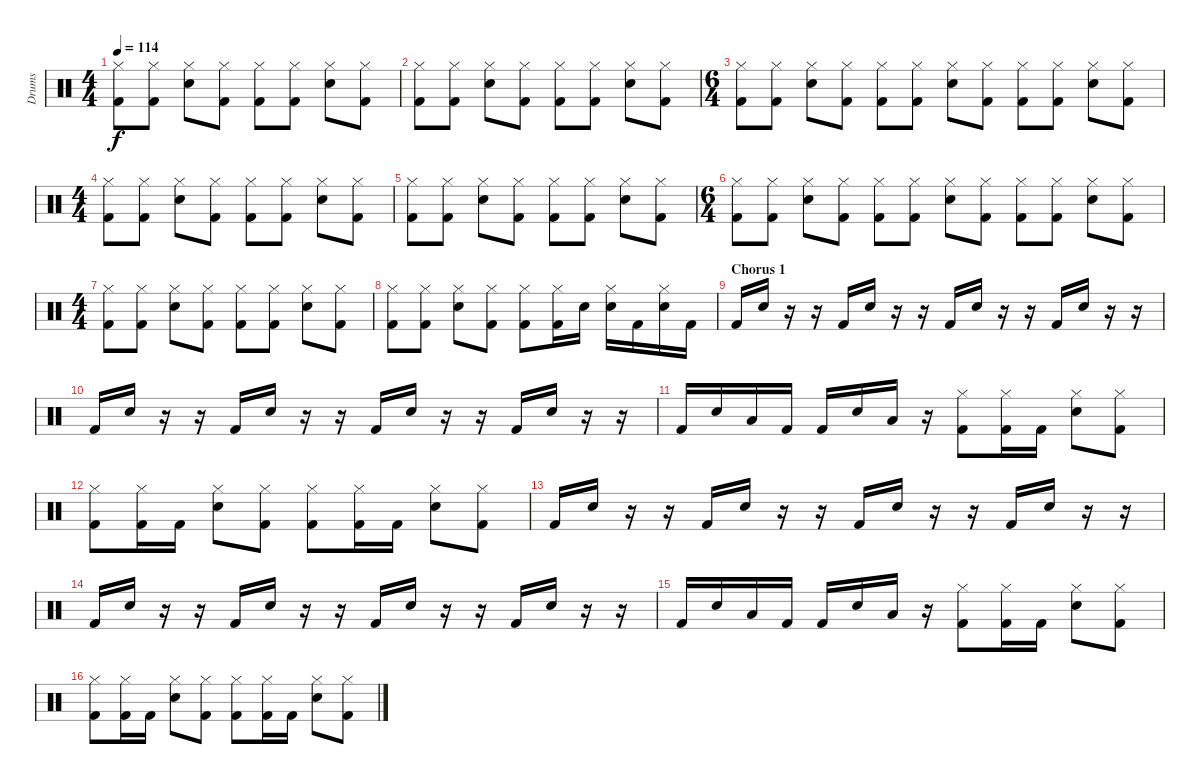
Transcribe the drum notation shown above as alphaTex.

\track ("Drums" "Drums") {instrument percussion}
\staff {score}
\articulation defaults
\ts (4 4)
\tempo 114
\clef neutral
\ks c
("Hi-Hat (closed)" "Kick (hit) 2").8{dy f} ("Hi-Hat (closed)" "Kick (hit) 2").8 ("Hi-Hat (closed)" "Snare (hit) 2").8 ("Hi-Hat (closed)" "Kick (hit) 2").8 ("Hi-Hat (closed)" "Kick (hit) 2").8 ("Hi-Hat (closed)" "Kick (hit) 2").8 ("Hi-Hat (closed)" "Snare (hit) 2").8 ("Hi-Hat (closed)" "Kick (hit) 2").8 |
("Hi-Hat (closed)" "Kick (hit) 2").8 ("Hi-Hat (closed)" "Kick (hit) 2").8 ("Hi-Hat (closed)" "Snare (hit) 2").8 ("Hi-Hat (closed)" "Kick (hit) 2").8 ("Hi-Hat (closed)" "Kick (hit) 2").8 ("Hi-Hat (closed)" "Kick (hit) 2").8 ("Hi-Hat (closed)" "Snare (hit) 2").8 ("Hi-Hat (closed)" "Kick (hit) 2").8 |
\ts (6 4)
("Hi-Hat (closed)" "Kick (hit) 2").8 ("Hi-Hat (closed)" "Kick (hit) 2").8 ("Hi-Hat (closed)" "Snare (hit) 2").8 ("Hi-Hat (closed)" "Kick (hit) 2").8 ("Hi-Hat (closed)" "Kick (hit) 2").8 ("Hi-Hat (closed)" "Kick (hit) 2").8 ("Hi-Hat (closed)" "Snare (hit) 2").8 ("Hi-Hat (closed)" "Kick (hit) 2").8 ("Hi-Hat (closed)" "Kick (hit) 2").8 ("Hi-Hat (closed)" "Kick (hit) 2").8 ("Hi-Hat (closed)" "Snare (hit) 2").8 ("Hi-Hat (closed)" "Kick (hit) 2").8 |
\ts (4 4)
("Hi-Hat (closed)" "Kick (hit) 2").8 ("Hi-Hat (closed)" "Kick (hit) 2").8 ("Hi-Hat (closed)" "Snare (hit) 2").8 ("Hi-Hat (closed)" "Kick (hit) 2").8 ("Hi-Hat (closed)" "Kick (hit) 2").8 ("Hi-Hat (closed)" "Kick (hit) 2").8 ("Hi-Hat (closed)" "Snare (hit) 2").8 ("Hi-Hat (closed)" "Kick (hit) 2").8 |
("Hi-Hat (closed)" "Kick (hit) 2").8 ("Hi-Hat (closed)" "Kick (hit) 2").8 ("Hi-Hat (closed)" "Snare (hit) 2").8 ("Hi-Hat (closed)" "Kick (hit) 2").8 ("Hi-Hat (closed)" "Kick (hit) 2").8 ("Hi-Hat (closed)" "Kick (hit) 2").8 ("Hi-Hat (closed)" "Snare (hit) 2").8 ("Hi-Hat (closed)" "Kick (hit) 2").8 |
\ts (6 4)
("Hi-Hat (closed)" "Kick (hit) 2").8 ("Hi-Hat (closed)" "Kick (hit) 2").8 ("Hi-Hat (closed)" "Snare (hit) 2").8 ("Hi-Hat (closed)" "Kick (hit) 2").8 ("Hi-Hat (closed)" "Kick (hit) 2").8 ("Hi-Hat (closed)" "Kick (hit) 2").8 ("Hi-Hat (closed)" "Snare (hit) 2").8 ("Hi-Hat (closed)" "Kick (hit) 2").8 ("Hi-Hat (closed)" "Kick (hit) 2").8 ("Hi-Hat (closed)" "Kick (hit) 2").8 ("Hi-Hat (closed)" "Snare (hit) 2").8 ("Hi-Hat (closed)" "Kick (hit) 2").8 |
\ts (4 4)
("Hi-Hat (closed)" "Kick (hit) 2").8 ("Hi-Hat (closed)" "Kick (hit) 2").8 ("Hi-Hat (closed)" "Snare (hit) 2").8 ("Hi-Hat (closed)" "Kick (hit) 2").8 ("Hi-Hat (closed)" "Kick (hit) 2").8 ("Hi-Hat (closed)" "Kick (hit) 2").8 ("Hi-Hat (closed)" "Snare (hit) 2").8 ("Hi-Hat (closed)" "Kick (hit) 2").8 |
("Hi-Hat (closed)" "Kick (hit) 2").8 ("Hi-Hat (closed)" "Kick (hit) 2").8 ("Hi-Hat (closed)" "Snare (hit) 2").8 ("Hi-Hat (closed)" "Kick (hit) 2").8 ("Hi-Hat (closed)" "Kick (hit) 2").8 ("Hi-Hat (closed)" "Kick (hit) 2").16 "Snare (hit) 2".16 ("Hi-Hat (closed)" "Snare (hit) 2").16 "Kick (hit) 2".16 ("Hi-Hat (closed)" "Snare (hit) 2").16 "Kick (hit) 2".16 |
\section ("" "Chorus 1")
"Kick (hit) 2".16 "Snare (hit) 2".16 r.16 r.16 "Kick (hit) 2".16 "Snare (hit) 2".16 r.16 r.16 "Kick (hit) 2".16 "Snare (hit) 2".16 r.16 r.16 "Kick (hit) 2".16 "Snare (hit) 2".16 r.16 r.16 |
"Kick (hit) 2".16 "Snare (hit) 2".16 r.16 r.16 "Kick (hit) 2".16 "Snare (hit) 2".16 r.16 r.16 "Kick (hit) 2".16 "Snare (hit) 2".16 r.16 r.16 "Kick (hit) 2".16 "Snare (hit) 2".16 r.16 r.16 |
"Kick (hit) 2".16 "Snare (hit) 2".16 "Low Tom (hit)".16 "Kick (hit) 2".16 "Kick (hit) 2".16 "Snare (hit) 2".16 "Low Floor Tom (hit)".16 r.16 ("Hi-Hat (closed)" "Kick (hit) 2").8 ("Hi-Hat (closed)" "Kick (hit) 2").16 "Kick (hit) 2".16 ("Hi-Hat (closed)" "Snare (hit) 2").8 ("Hi-Hat (closed)" "Kick (hit) 2").8 |
("Hi-Hat (closed)" "Kick (hit) 2").8 ("Hi-Hat (closed)" "Kick (hit) 2").16 "Kick (hit) 2".16 ("Hi-Hat (closed)" "Snare (hit) 2").8 ("Hi-Hat (closed)" "Kick (hit) 2").8 ("Hi-Hat (closed)" "Kick (hit) 2").8 ("Hi-Hat (closed)" "Kick (hit) 2").16 "Kick (hit) 2".16 ("Hi-Hat (closed)" "Snare (hit) 2").8 ("Hi-Hat (closed)" "Kick (hit) 2").8 |
"Kick (hit) 2".16 "Snare (hit) 2".16 r.16 r.16 "Kick (hit) 2".16 "Snare (hit) 2".16 r.16 r.16 "Kick (hit) 2".16 "Snare (hit) 2".16 r.16 r.16 "Kick (hit) 2".16 "Snare (hit) 2".16 r.16 r.16 |
"Kick (hit) 2".16 "Snare (hit) 2".16 r.16 r.16 "Kick (hit) 2".16 "Snare (hit) 2".16 r.16 r.16 "Kick (hit) 2".16 "Snare (hit) 2".16 r.16 r.16 "Kick (hit) 2".16 "Snare (hit) 2".16 r.16 r.16 |
"Kick (hit) 2".16 "Snare (hit) 2".16 "Low Tom (hit)".16 "Kick (hit) 2".16 "Kick (hit) 2".16 "Snare (hit) 2".16 "Low Floor Tom (hit)".16 r.16 ("Hi-Hat (closed)" "Kick (hit) 2").8 ("Hi-Hat (closed)" "Kick (hit) 2").16 "Kick (hit) 2".16 ("Hi-Hat (closed)" "Snare (hit) 2").8 ("Hi-Hat (closed)" "Kick (hit) 2").8 |
("Hi-Hat (closed)" "Kick (hit) 2").8 ("Hi-Hat (closed)" "Kick (hit) 2").16 "Kick (hit) 2".16 ("Hi-Hat (closed)" "Snare (hit) 2").8 ("Hi-Hat (closed)" "Kick (hit) 2").8 ("Hi-Hat (closed)" "Kick (hit) 2").8 ("Hi-Hat (closed)" "Kick (hit) 2").16 "Kick (hit) 2".16 ("Hi-Hat (closed)" "Snare (hit) 2").8 ("Hi-Hat (closed)" "Kick (hit) 2").8
